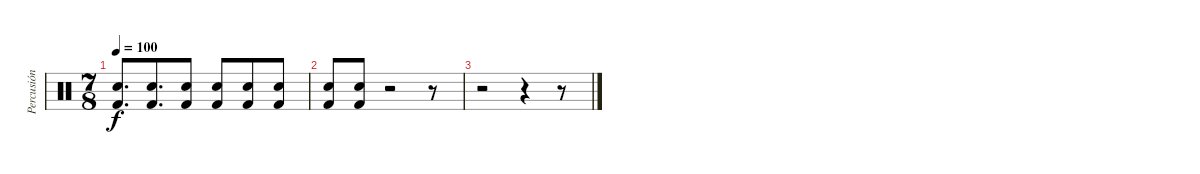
\track ("Percusión" "Percusión") {instrument percussion}
\staff {score}
\articulation defaults
\ts (7 8)
\tempo 100
\clef neutral
\ks c
("Electric Snare (hit)" "Kick (hit) 2").8{d dy f} ("Electric Snare (hit)" "Kick (hit) 2").8{d} ("Electric Snare (hit)" "Kick (hit) 2").8 ("Electric Snare (hit)" "Kick (hit) 2").8 ("Electric Snare (hit)" "Kick (hit) 2").8 ("Electric Snare (hit)" "Kick (hit) 2").8 |
("Electric Snare (hit)" "Kick (hit) 2").8 ("Electric Snare (hit)" "Kick (hit) 2").8 r.2 r.8 |
r.2 r.4 r.8
